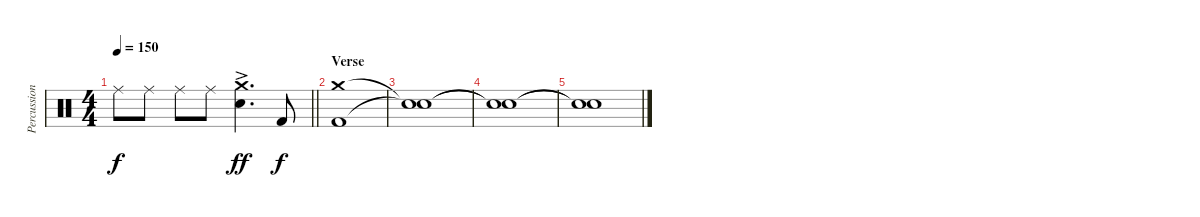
\track ("Percussion" "Percussion") {instrument percussion}
\staff {score}
\articulation defaults
\ts (4 4)
\tempo 150
\clef neutral
\barLineRight lightlight
\ks c "Ride (middle)".8{dy f} "Ride (middle)".8 "Ride (middle)".8 "Ride (middle)".8
("Crash medium (hit)" "Electric Snare (hit)"{ac}).4{d dy ff} "Kick (hit) 2".8{dy f} |
\section ("" "Verse")
("Crash medium (hit)" "Kick (hit) 2").1 |
("Snare (hit)"{t} "Snare (hit)"{t}).1 |
("Snare (hit)"{t} "Snare (hit)"{t}).1 |
("Snare (hit)"{t} "Snare (hit)"{t}).1
